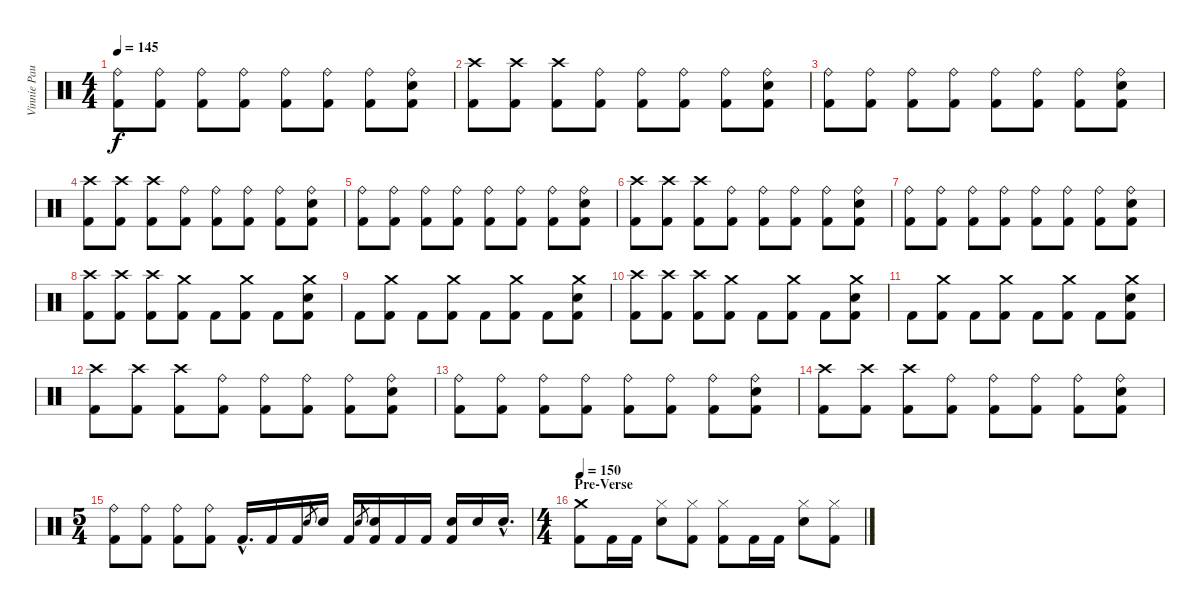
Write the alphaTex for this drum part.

\track ("Vinnie Paul" "Vinnie Pau") {instrument percussion}
\staff {score}
\articulation defaults
\ts (4 4)
\tempo 145
\clef neutral
\ks c
("Ride (bell)" "Kick (hit) 2").8{dy f} ("Ride (bell)" "Kick (hit) 2").8 ("Ride (bell)" "Kick (hit) 2").8 ("Ride (bell)" "Kick (hit) 2").8 ("Ride (bell)" "Kick (hit) 2").8 ("Ride (bell)" "Kick (hit) 2").8 ("Ride (bell)" "Kick (hit) 2").8 ("Ride (bell)" "Snare (hit) 2" "Kick (hit) 2").8 |
("Crash high (hit)" "Kick (hit) 2").8 ("Crash high (hit)" "Kick (hit) 2").8 ("Crash high (hit)" "Kick (hit) 2").8 ("Ride (bell)" "Kick (hit) 2").8 ("Ride (bell)" "Kick (hit) 2").8 ("Ride (bell)" "Kick (hit) 2").8 ("Ride (bell)" "Kick (hit) 2").8 ("Ride (bell)" "Snare (hit) 2" "Kick (hit) 2").8 |
("Ride (bell)" "Kick (hit) 2").8 ("Ride (bell)" "Kick (hit) 2").8 ("Ride (bell)" "Kick (hit) 2").8 ("Ride (bell)" "Kick (hit) 2").8 ("Ride (bell)" "Kick (hit) 2").8 ("Ride (bell)" "Kick (hit) 2").8 ("Ride (bell)" "Kick (hit) 2").8 ("Ride (bell)" "Snare (hit) 2" "Kick (hit) 2").8 |
("Crash high (hit)" "Kick (hit) 2").8 ("Crash high (hit)" "Kick (hit) 2").8 ("Crash high (hit)" "Kick (hit) 2").8 ("Ride (bell)" "Kick (hit) 2").8 ("Ride (bell)" "Kick (hit) 2").8 ("Ride (bell)" "Kick (hit) 2").8 ("Ride (bell)" "Kick (hit) 2").8 ("Ride (bell)" "Snare (hit) 2" "Kick (hit) 2").8 |
("Ride (bell)" "Kick (hit) 2").8 ("Ride (bell)" "Kick (hit) 2").8 ("Ride (bell)" "Kick (hit) 2").8 ("Ride (bell)" "Kick (hit) 2").8 ("Ride (bell)" "Kick (hit) 2").8 ("Ride (bell)" "Kick (hit) 2").8 ("Ride (bell)" "Kick (hit) 2").8 ("Ride (bell)" "Snare (hit) 2" "Kick (hit) 2").8 |
("Crash high (hit)" "Kick (hit) 2").8 ("Crash high (hit)" "Kick (hit) 2").8 ("Crash high (hit)" "Kick (hit) 2").8 ("Ride (bell)" "Kick (hit) 2").8 ("Ride (bell)" "Kick (hit) 2").8 ("Ride (bell)" "Kick (hit) 2").8 ("Ride (bell)" "Kick (hit) 2").8 ("Ride (bell)" "Snare (hit) 2" "Kick (hit) 2").8 |
("Ride (bell)" "Kick (hit) 2").8 ("Ride (bell)" "Kick (hit) 2").8 ("Ride (bell)" "Kick (hit) 2").8 ("Ride (bell)" "Kick (hit) 2").8 ("Ride (bell)" "Kick (hit) 2").8 ("Ride (bell)" "Kick (hit) 2").8 ("Ride (bell)" "Kick (hit) 2").8 ("Ride (bell)" "Snare (hit) 2" "Kick (hit) 2").8 |
("Crash high (hit)" "Kick (hit) 2").8 ("Crash high (hit)" "Kick (hit) 2").8 ("Crash high (hit)" "Kick (hit) 2").8 ("Crash medium (hit)" "Kick (hit) 2").8 "Kick (hit) 2".8 ("Crash medium (hit)" "Kick (hit) 2").8 "Kick (hit) 2".8 ("Crash medium (hit)" "Snare (hit) 2" "Kick (hit) 2").8 |
"Kick (hit) 2".8 ("Crash medium (hit)" "Kick (hit) 2").8 "Kick (hit) 2".8 ("Crash medium (hit)" "Kick (hit) 2").8 "Kick (hit) 2".8 ("Crash medium (hit)" "Kick (hit) 2").8 "Kick (hit) 2".8 ("Crash medium (hit)" "Snare (hit) 2" "Kick (hit) 2").8 |
("Crash high (hit)" "Kick (hit) 2").8 ("Crash high (hit)" "Kick (hit) 2").8 ("Crash high (hit)" "Kick (hit) 2").8 ("Crash medium (hit)" "Kick (hit) 2").8 "Kick (hit) 2".8 ("Crash medium (hit)" "Kick (hit) 2").8 "Kick (hit) 2".8 ("Crash medium (hit)" "Snare (hit) 2" "Kick (hit) 2").8 |
"Kick (hit) 2".8 ("Crash medium (hit)" "Kick (hit) 2").8 "Kick (hit) 2".8 ("Crash medium (hit)" "Kick (hit) 2").8 "Kick (hit) 2".8 ("Crash medium (hit)" "Kick (hit) 2").8 "Kick (hit) 2".8 ("Crash medium (hit)" "Snare (hit) 2" "Kick (hit) 2").8 |
("Crash high (hit)" "Kick (hit) 2").8 ("Crash high (hit)" "Kick (hit) 2").8 ("Crash high (hit)" "Kick (hit) 2").8 ("Ride (bell)" "Kick (hit) 2").8 ("Ride (bell)" "Kick (hit) 2").8 ("Ride (bell)" "Kick (hit) 2").8 ("Ride (bell)" "Kick (hit) 2").8 ("Ride (bell)" "Snare (hit) 2" "Kick (hit) 2").8 |
("Ride (bell)" "Kick (hit) 2").8 ("Ride (bell)" "Kick (hit) 2").8 ("Ride (bell)" "Kick (hit) 2").8 ("Ride (bell)" "Kick (hit) 2").8 ("Ride (bell)" "Kick (hit) 2").8 ("Ride (bell)" "Kick (hit) 2").8 ("Ride (bell)" "Kick (hit) 2").8 ("Ride (bell)" "Snare (hit) 2" "Kick (hit) 2").8 |
("Crash high (hit)" "Kick (hit) 2").8 ("Crash high (hit)" "Kick (hit) 2").8 ("Crash high (hit)" "Kick (hit) 2").8 ("Ride (bell)" "Kick (hit) 2").8 ("Ride (bell)" "Kick (hit) 2").8 ("Ride (bell)" "Kick (hit) 2").8 ("Ride (bell)" "Kick (hit) 2").8 ("Ride (bell)" "Snare (hit) 2" "Kick (hit) 2").8 |
\ts (5 4)
("Ride (bell)" "Kick (hit) 2").8 ("Ride (bell)" "Kick (hit) 2").8 ("Ride (bell)" "Kick (hit) 2").8 ("Ride (bell)" "Kick (hit) 2").8 "Kick (hit) 2"{hac}.16{d} "Kick (hit) 2".16 "Kick (hit) 2".16 "Snare (hit) 2".8{gr} "Snare (hit) 2".16 "Kick (hit) 2".16 "Snare (hit) 2".8{gr} ("Snare (hit) 2" "Kick (hit) 2").16 "Kick (hit) 2".16 "Kick (hit) 2".16 ("Snare (hit) 2" "Kick (hit) 2").16 "Snare (hit) 2".16 "Snare (hit) 2"{hac}.16{d} |
\ts (4 4)
\section ("" "Pre-Verse")
\tempo 150
("Crash medium (hit)" "Kick (hit) 2").8 "Kick (hit) 2".16 "Kick (hit) 2".16 ("Hi-Hat (closed)" "Snare (hit) 2").8 ("Hi-Hat (closed)" "Kick (hit) 2").8 ("Hi-Hat (closed)" "Kick (hit) 2").8 "Kick (hit) 2".16 "Kick (hit) 2".16 ("Hi-Hat (closed)" "Snare (hit) 2").8 ("Hi-Hat (closed)" "Kick (hit) 2").8
